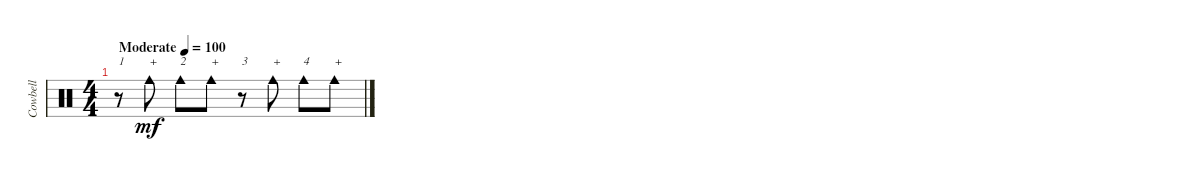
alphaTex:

\track ("Cowbell" "Cowbell") {instrument percussion}
\staff {score}
\articulation defaults
\ts (4 4)
\tempo (100 "Moderate")
\clef neutral
\ks c
r.8{txt "1" dy mf} "Cowbell medium (hit)".8{txt "+"} "Cowbell medium (hit)".8{txt "2"} "Cowbell medium (hit)".8{txt "+"} r.8{txt "3"} "Cowbell medium (hit)".8{txt "+"} "Cowbell medium (hit)".8{txt "4"} "Cowbell medium (hit)".8{txt "+"}
